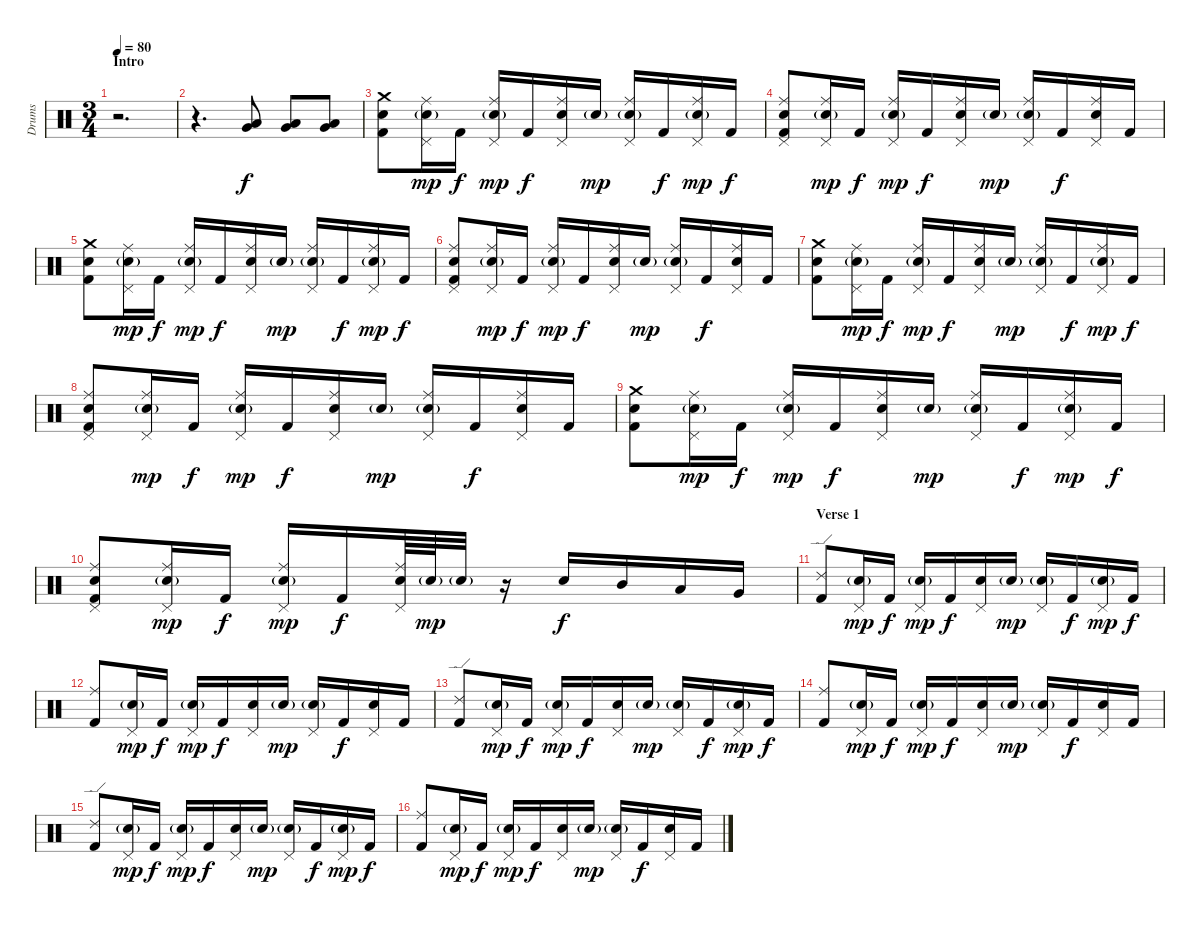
\track ("Drums" "Drums") {instrument percussion}
\staff {score}
\articulation defaults
\ts (3 4)
\section ("" "Intro")
\tempo 80
\clef neutral
\ks c
r.2{d dy f} |
r.4{d} ("Low Tom (hit)" "Very Low Tom (hit)").8 ("Low Tom (hit)" "Very Low Tom (hit)").8 ("Low Tom (hit)" "Very Low Tom (hit)").8 |
("Crash medium (hit)" "Snare (hit) 2" "Kick (hit) 2").8 ("Ride (middle)" "Pedal Hi-Hat (hit)" "Snare (hit) 2"{g}).16{dy mp} "Kick (hit) 2".16{dy f} ("Ride (middle)" "Pedal Hi-Hat (hit)" "Snare (hit) 2"{g}).16{dy mp} "Kick (hit) 2".16{dy f} ("Ride (middle)" "Pedal Hi-Hat (hit)" "Snare (hit) 2").16 "Snare (hit) 2"{g}.16{dy mp} ("Ride (middle)" "Pedal Hi-Hat (hit)" "Snare (hit) 2"{g}).16 "Kick (hit) 2".16{dy f} ("Ride (middle)" "Pedal Hi-Hat (hit)" "Snare (hit) 2"{g}).16{dy mp} "Kick (hit) 2".16{dy f} |
("Ride (middle)" "Pedal Hi-Hat (hit)" "Snare (hit) 2" "Kick (hit) 2").8 ("Ride (middle)" "Pedal Hi-Hat (hit)" "Snare (hit) 2"{g}).16{dy mp} "Kick (hit) 2".16{dy f} ("Ride (middle)" "Pedal Hi-Hat (hit)" "Snare (hit) 2"{g}).16{dy mp} "Kick (hit) 2".16{dy f} ("Ride (middle)" "Pedal Hi-Hat (hit)" "Snare (hit) 2").16 "Snare (hit) 2"{g}.16{dy mp} ("Ride (middle)" "Pedal Hi-Hat (hit)" "Snare (hit) 2"{g}).16 "Kick (hit) 2".16{dy f} ("Ride (middle)" "Pedal Hi-Hat (hit)" "Snare (hit) 2").16 "Kick (hit) 2".16 |
("Crash medium (hit)" "Snare (hit) 2" "Kick (hit) 2").8 ("Ride (middle)" "Pedal Hi-Hat (hit)" "Snare (hit) 2"{g}).16{dy mp} "Kick (hit) 2".16{dy f} ("Ride (middle)" "Pedal Hi-Hat (hit)" "Snare (hit) 2"{g}).16{dy mp} "Kick (hit) 2".16{dy f} ("Ride (middle)" "Pedal Hi-Hat (hit)" "Snare (hit) 2").16 "Snare (hit) 2"{g}.16{dy mp} ("Ride (middle)" "Pedal Hi-Hat (hit)" "Snare (hit) 2"{g}).16 "Kick (hit) 2".16{dy f} ("Ride (middle)" "Pedal Hi-Hat (hit)" "Snare (hit) 2"{g}).16{dy mp} "Kick (hit) 2".16{dy f} |
("Ride (middle)" "Pedal Hi-Hat (hit)" "Snare (hit) 2" "Kick (hit) 2").8 ("Ride (middle)" "Pedal Hi-Hat (hit)" "Snare (hit) 2"{g}).16{dy mp} "Kick (hit) 2".16{dy f} ("Ride (middle)" "Pedal Hi-Hat (hit)" "Snare (hit) 2"{g}).16{dy mp} "Kick (hit) 2".16{dy f} ("Ride (middle)" "Pedal Hi-Hat (hit)" "Snare (hit) 2").16 "Snare (hit) 2"{g}.16{dy mp} ("Ride (middle)" "Pedal Hi-Hat (hit)" "Snare (hit) 2"{g}).16 "Kick (hit) 2".16{dy f} ("Ride (middle)" "Pedal Hi-Hat (hit)" "Snare (hit) 2").16 "Kick (hit) 2".16 |
("Crash medium (hit)" "Snare (hit) 2" "Kick (hit) 2").8 ("Ride (middle)" "Pedal Hi-Hat (hit)" "Snare (hit) 2"{g}).16{dy mp} "Kick (hit) 2".16{dy f} ("Ride (middle)" "Pedal Hi-Hat (hit)" "Snare (hit) 2"{g}).16{dy mp} "Kick (hit) 2".16{dy f} ("Ride (middle)" "Pedal Hi-Hat (hit)" "Snare (hit) 2").16 "Snare (hit) 2"{g}.16{dy mp} ("Ride (middle)" "Pedal Hi-Hat (hit)" "Snare (hit) 2"{g}).16 "Kick (hit) 2".16{dy f} ("Ride (middle)" "Pedal Hi-Hat (hit)" "Snare (hit) 2"{g}).16{dy mp} "Kick (hit) 2".16{dy f} |
("Ride (middle)" "Pedal Hi-Hat (hit)" "Snare (hit) 2" "Kick (hit) 2").8 ("Ride (middle)" "Pedal Hi-Hat (hit)" "Snare (hit) 2"{g}).16{dy mp} "Kick (hit) 2".16{dy f} ("Ride (middle)" "Pedal Hi-Hat (hit)" "Snare (hit) 2"{g}).16{dy mp} "Kick (hit) 2".16{dy f} ("Ride (middle)" "Pedal Hi-Hat (hit)" "Snare (hit) 2").16 "Snare (hit) 2"{g}.16{dy mp} ("Ride (middle)" "Pedal Hi-Hat (hit)" "Snare (hit) 2"{g}).16 "Kick (hit) 2".16{dy f} ("Ride (middle)" "Pedal Hi-Hat (hit)" "Snare (hit) 2").16 "Kick (hit) 2".16 |
("Crash medium (hit)" "Snare (hit) 2" "Kick (hit) 2").8 ("Ride (middle)" "Pedal Hi-Hat (hit)" "Snare (hit) 2"{g}).16{dy mp} "Kick (hit) 2".16{dy f} ("Ride (middle)" "Pedal Hi-Hat (hit)" "Snare (hit) 2"{g}).16{dy mp} "Kick (hit) 2".16{dy f} ("Ride (middle)" "Pedal Hi-Hat (hit)" "Snare (hit) 2").16 "Snare (hit) 2"{g}.16{dy mp} ("Ride (middle)" "Pedal Hi-Hat (hit)" "Snare (hit) 2"{g}).16 "Kick (hit) 2".16{dy f} ("Ride (middle)" "Pedal Hi-Hat (hit)" "Snare (hit) 2"{g}).16{dy mp} "Kick (hit) 2".16{dy f} |
("Ride (middle)" "Pedal Hi-Hat (hit)" "Snare (hit) 2" "Kick (hit) 2").8 ("Ride (middle)" "Pedal Hi-Hat (hit)" "Snare (hit) 2"{g}).16{dy mp} "Kick (hit) 2".16{dy f} ("Ride (middle)" "Pedal Hi-Hat (hit)" "Snare (hit) 2"{g}).16{dy mp} "Kick (hit) 2".16{dy f} ("Ride (middle)" "Pedal Hi-Hat (hit)" "Snare (hit) 2").64 "Snare (hit) 2"{g}.64{dy mp} "Snare (hit) 2"{g}.32 r.16 "Snare (hit) 2".16{dy f} "Mid Tom (hit)".16 "Low Tom (hit)".16 "Very Low Tom (hit)".16 |
\section ("" "Verse 1")
("Ride (edge) 2" "Kick (hit) 2").8 ("Pedal Hi-Hat (hit)" "Snare (hit) 2"{g}).16{dy mp} "Kick (hit) 2".16{dy f} ("Pedal Hi-Hat (hit)" "Snare (hit) 2"{g}).16{dy mp} "Kick (hit) 2".16{dy f} ("Pedal Hi-Hat (hit)" "Snare (hit) 2").16 "Snare (hit) 2"{g}.16{dy mp} ("Pedal Hi-Hat (hit)" "Snare (hit) 2"{g}).16 "Kick (hit) 2".16{dy f} ("Pedal Hi-Hat (hit)" "Snare (hit) 2"{g}).16{dy mp} "Kick (hit) 2".16{dy f} |
("Ride (middle)" "Kick (hit) 2").8 ("Pedal Hi-Hat (hit)" "Snare (hit) 2"{g}).16{dy mp} "Kick (hit) 2".16{dy f} ("Pedal Hi-Hat (hit)" "Snare (hit) 2"{g}).16{dy mp} "Kick (hit) 2".16{dy f} ("Pedal Hi-Hat (hit)" "Snare (hit) 2").16 "Snare (hit) 2"{g}.16{dy mp} ("Pedal Hi-Hat (hit)" "Snare (hit) 2"{g}).16 "Kick (hit) 2".16{dy f} ("Pedal Hi-Hat (hit)" "Snare (hit) 2").16 "Kick (hit) 2".16 |
("Ride (edge) 2" "Kick (hit) 2").8 ("Pedal Hi-Hat (hit)" "Snare (hit) 2"{g}).16{dy mp} "Kick (hit) 2".16{dy f} ("Pedal Hi-Hat (hit)" "Snare (hit) 2"{g}).16{dy mp} "Kick (hit) 2".16{dy f} ("Pedal Hi-Hat (hit)" "Snare (hit) 2").16 "Snare (hit) 2"{g}.16{dy mp} ("Pedal Hi-Hat (hit)" "Snare (hit) 2"{g}).16 "Kick (hit) 2".16{dy f} ("Pedal Hi-Hat (hit)" "Snare (hit) 2"{g}).16{dy mp} "Kick (hit) 2".16{dy f} |
("Ride (middle)" "Kick (hit) 2").8 ("Pedal Hi-Hat (hit)" "Snare (hit) 2"{g}).16{dy mp} "Kick (hit) 2".16{dy f} ("Pedal Hi-Hat (hit)" "Snare (hit) 2"{g}).16{dy mp} "Kick (hit) 2".16{dy f} ("Pedal Hi-Hat (hit)" "Snare (hit) 2").16 "Snare (hit) 2"{g}.16{dy mp} ("Pedal Hi-Hat (hit)" "Snare (hit) 2"{g}).16 "Kick (hit) 2".16{dy f} ("Pedal Hi-Hat (hit)" "Snare (hit) 2").16 "Kick (hit) 2".16 |
("Ride (edge) 2" "Kick (hit) 2").8 ("Pedal Hi-Hat (hit)" "Snare (hit) 2"{g}).16{dy mp} "Kick (hit) 2".16{dy f} ("Pedal Hi-Hat (hit)" "Snare (hit) 2"{g}).16{dy mp} "Kick (hit) 2".16{dy f} ("Pedal Hi-Hat (hit)" "Snare (hit) 2").16 "Snare (hit) 2"{g}.16{dy mp} ("Pedal Hi-Hat (hit)" "Snare (hit) 2"{g}).16 "Kick (hit) 2".16{dy f} ("Pedal Hi-Hat (hit)" "Snare (hit) 2"{g}).16{dy mp} "Kick (hit) 2".16{dy f} |
("Ride (middle)" "Kick (hit) 2").8 ("Pedal Hi-Hat (hit)" "Snare (hit) 2"{g}).16{dy mp} "Kick (hit) 2".16{dy f} ("Pedal Hi-Hat (hit)" "Snare (hit) 2"{g}).16{dy mp} "Kick (hit) 2".16{dy f} ("Pedal Hi-Hat (hit)" "Snare (hit) 2").16 "Snare (hit) 2"{g}.16{dy mp} ("Pedal Hi-Hat (hit)" "Snare (hit) 2"{g}).16 "Kick (hit) 2".16{dy f} ("Pedal Hi-Hat (hit)" "Snare (hit) 2").16 "Kick (hit) 2".16
